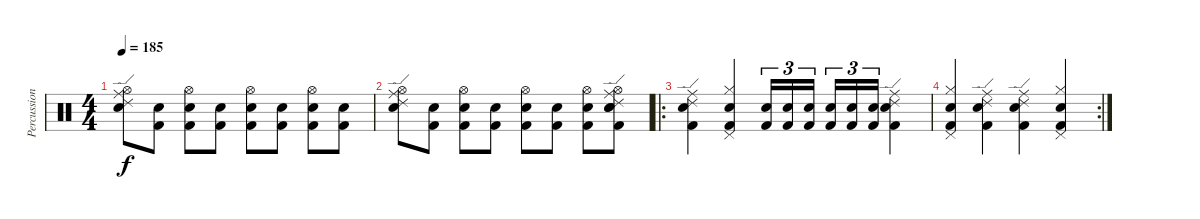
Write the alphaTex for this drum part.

\track ("Percussions" "Percussion") {instrument percussion}
\staff {score}
\articulation defaults
\ts (4 4)
\tempo 185
\clef neutral
\ks c
("Hi-Hat (open)" "Ride (middle)" "Ride (edge) 2" "Snare (hit) 2").8{dy f} ("Snare (hit) 2" "Kick (hit) 2").8 ("Hi-Hat (open)" "Snare (hit) 2" "Kick (hit) 2").8 ("Snare (hit) 2" "Kick (hit) 2").8 ("Hi-Hat (open)" "Snare (hit) 2" "Kick (hit) 2").8 ("Snare (hit) 2" "Kick (hit) 2").8 ("Hi-Hat (open)" "Snare (hit) 2" "Kick (hit) 2").8 ("Snare (hit) 2" "Kick (hit) 2").8 |
("Hi-Hat (open)" "Ride (middle)" "Ride (edge) 2" "Snare (hit) 2").8 ("Snare (hit) 2" "Kick (hit) 2").8 ("Hi-Hat (open)" "Snare (hit) 2" "Kick (hit) 2").8 ("Snare (hit) 2" "Kick (hit) 2").8 ("Hi-Hat (open)" "Snare (hit) 2" "Kick (hit) 2").8 ("Snare (hit) 2" "Kick (hit) 2").8 ("Hi-Hat (open)" "Snare (hit) 2" "Kick (hit) 2").8 ("Hi-Hat (open)" "Ride (middle)" "Ride (edge) 2" "Snare (hit) 2" "Electric Snare (hit)" "Kick (hit) 2").8 |
\ro
("Ride (edge) 2" "Ride (middle)" "Electric Snare (hit)" "Kick (hit) 2").4 ("Hi-Hat (closed)" "Pedal Hi-Hat (hit)" "Electric Snare (hit)" "Kick (hit) 2").4 ("Snare (hit) 2" "Kick (hit) 2").16{tu (3 2)} ("Snare (hit) 2" "Kick (hit) 2").16{tu (3 2)} ("Snare (hit) 2" "Kick (hit) 2").16{tu (3 2)} ("Snare (hit) 2" "Kick (hit) 2").16{tu (3 2)} ("Snare (hit) 2" "Kick (hit) 2").16{tu (3 2)} ("Snare (hit) 2" "Kick (hit) 2").16{tu (3 2)} ("Ride (edge) 2" "Ride (middle)" "Electric Snare (hit)" "Kick (hit) 2").4 |
\rc 2
("Hi-Hat (closed)" "Pedal Hi-Hat (hit)" "Electric Snare (hit)" "Kick (hit) 2").4 ("Ride (edge) 2" "Ride (middle)" "Electric Snare (hit)" "Kick (hit) 2").4 ("Ride (edge) 2" "Ride (middle)" "Electric Snare (hit)" "Kick (hit) 2").4 ("Hi-Hat (closed)" "Pedal Hi-Hat (hit)" "Electric Snare (hit)" "Kick (hit) 2").4
